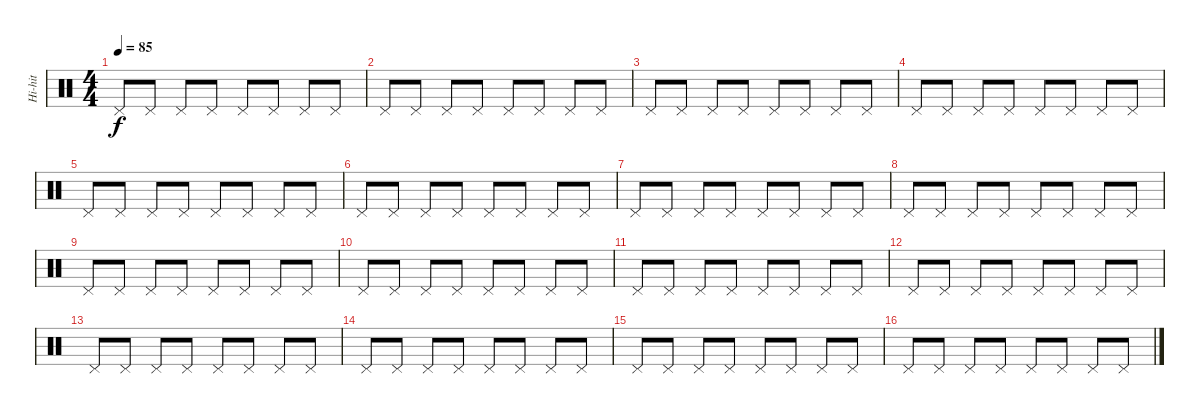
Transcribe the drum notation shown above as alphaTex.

\track ("Hi-hit" "Hi-hit") {instrument percussion}
\staff {score}
\articulation defaults
\ts (4 4)
\tempo 85
\clef neutral
\ks c "Pedal Hi-Hat (hit)".8{dy f} "Pedal Hi-Hat (hit)".8 "Pedal Hi-Hat (hit)".8 "Pedal Hi-Hat (hit)".8 "Pedal Hi-Hat (hit)".8 "Pedal Hi-Hat (hit)".8 "Pedal Hi-Hat (hit)".8 "Pedal Hi-Hat (hit)".8
|
"Pedal Hi-Hat (hit)".8 "Pedal Hi-Hat (hit)".8 "Pedal Hi-Hat (hit)".8 "Pedal Hi-Hat (hit)".8 "Pedal Hi-Hat (hit)".8 "Pedal Hi-Hat (hit)".8 "Pedal Hi-Hat (hit)".8 "Pedal Hi-Hat (hit)".8 |
"Pedal Hi-Hat (hit)".8 "Pedal Hi-Hat (hit)".8 "Pedal Hi-Hat (hit)".8 "Pedal Hi-Hat (hit)".8 "Pedal Hi-Hat (hit)".8 "Pedal Hi-Hat (hit)".8 "Pedal Hi-Hat (hit)".8 "Pedal Hi-Hat (hit)".8 |
"Pedal Hi-Hat (hit)".8 "Pedal Hi-Hat (hit)".8 "Pedal Hi-Hat (hit)".8 "Pedal Hi-Hat (hit)".8 "Pedal Hi-Hat (hit)".8 "Pedal Hi-Hat (hit)".8 "Pedal Hi-Hat (hit)".8 "Pedal Hi-Hat (hit)".8 |
"Pedal Hi-Hat (hit)".8 "Pedal Hi-Hat (hit)".8 "Pedal Hi-Hat (hit)".8 "Pedal Hi-Hat (hit)".8 "Pedal Hi-Hat (hit)".8 "Pedal Hi-Hat (hit)".8 "Pedal Hi-Hat (hit)".8 "Pedal Hi-Hat (hit)".8 |
"Pedal Hi-Hat (hit)".8 "Pedal Hi-Hat (hit)".8 "Pedal Hi-Hat (hit)".8 "Pedal Hi-Hat (hit)".8 "Pedal Hi-Hat (hit)".8 "Pedal Hi-Hat (hit)".8 "Pedal Hi-Hat (hit)".8 "Pedal Hi-Hat (hit)".8 |
"Pedal Hi-Hat (hit)".8 "Pedal Hi-Hat (hit)".8 "Pedal Hi-Hat (hit)".8 "Pedal Hi-Hat (hit)".8 "Pedal Hi-Hat (hit)".8 "Pedal Hi-Hat (hit)".8 "Pedal Hi-Hat (hit)".8 "Pedal Hi-Hat (hit)".8 |
"Pedal Hi-Hat (hit)".8 "Pedal Hi-Hat (hit)".8 "Pedal Hi-Hat (hit)".8 "Pedal Hi-Hat (hit)".8 "Pedal Hi-Hat (hit)".8 "Pedal Hi-Hat (hit)".8 "Pedal Hi-Hat (hit)".8 "Pedal Hi-Hat (hit)".8 |
"Pedal Hi-Hat (hit)".8 "Pedal Hi-Hat (hit)".8 "Pedal Hi-Hat (hit)".8 "Pedal Hi-Hat (hit)".8 "Pedal Hi-Hat (hit)".8 "Pedal Hi-Hat (hit)".8 "Pedal Hi-Hat (hit)".8 "Pedal Hi-Hat (hit)".8 |
"Pedal Hi-Hat (hit)".8 "Pedal Hi-Hat (hit)".8 "Pedal Hi-Hat (hit)".8 "Pedal Hi-Hat (hit)".8 "Pedal Hi-Hat (hit)".8 "Pedal Hi-Hat (hit)".8 "Pedal Hi-Hat (hit)".8 "Pedal Hi-Hat (hit)".8 |
"Pedal Hi-Hat (hit)".8 "Pedal Hi-Hat (hit)".8 "Pedal Hi-Hat (hit)".8 "Pedal Hi-Hat (hit)".8 "Pedal Hi-Hat (hit)".8 "Pedal Hi-Hat (hit)".8 "Pedal Hi-Hat (hit)".8 "Pedal Hi-Hat (hit)".8 |
"Pedal Hi-Hat (hit)".8 "Pedal Hi-Hat (hit)".8 "Pedal Hi-Hat (hit)".8 "Pedal Hi-Hat (hit)".8 "Pedal Hi-Hat (hit)".8 "Pedal Hi-Hat (hit)".8 "Pedal Hi-Hat (hit)".8 "Pedal Hi-Hat (hit)".8 |
"Pedal Hi-Hat (hit)".8 "Pedal Hi-Hat (hit)".8 "Pedal Hi-Hat (hit)".8 "Pedal Hi-Hat (hit)".8 "Pedal Hi-Hat (hit)".8 "Pedal Hi-Hat (hit)".8 "Pedal Hi-Hat (hit)".8 "Pedal Hi-Hat (hit)".8 |
"Pedal Hi-Hat (hit)".8 "Pedal Hi-Hat (hit)".8 "Pedal Hi-Hat (hit)".8 "Pedal Hi-Hat (hit)".8 "Pedal Hi-Hat (hit)".8 "Pedal Hi-Hat (hit)".8 "Pedal Hi-Hat (hit)".8 "Pedal Hi-Hat (hit)".8 |
"Pedal Hi-Hat (hit)".8 "Pedal Hi-Hat (hit)".8 "Pedal Hi-Hat (hit)".8 "Pedal Hi-Hat (hit)".8 "Pedal Hi-Hat (hit)".8 "Pedal Hi-Hat (hit)".8 "Pedal Hi-Hat (hit)".8 "Pedal Hi-Hat (hit)".8 |
"Pedal Hi-Hat (hit)".8 "Pedal Hi-Hat (hit)".8 "Pedal Hi-Hat (hit)".8 "Pedal Hi-Hat (hit)".8 "Pedal Hi-Hat (hit)".8 "Pedal Hi-Hat (hit)".8 "Pedal Hi-Hat (hit)".8 "Pedal Hi-Hat (hit)".8
